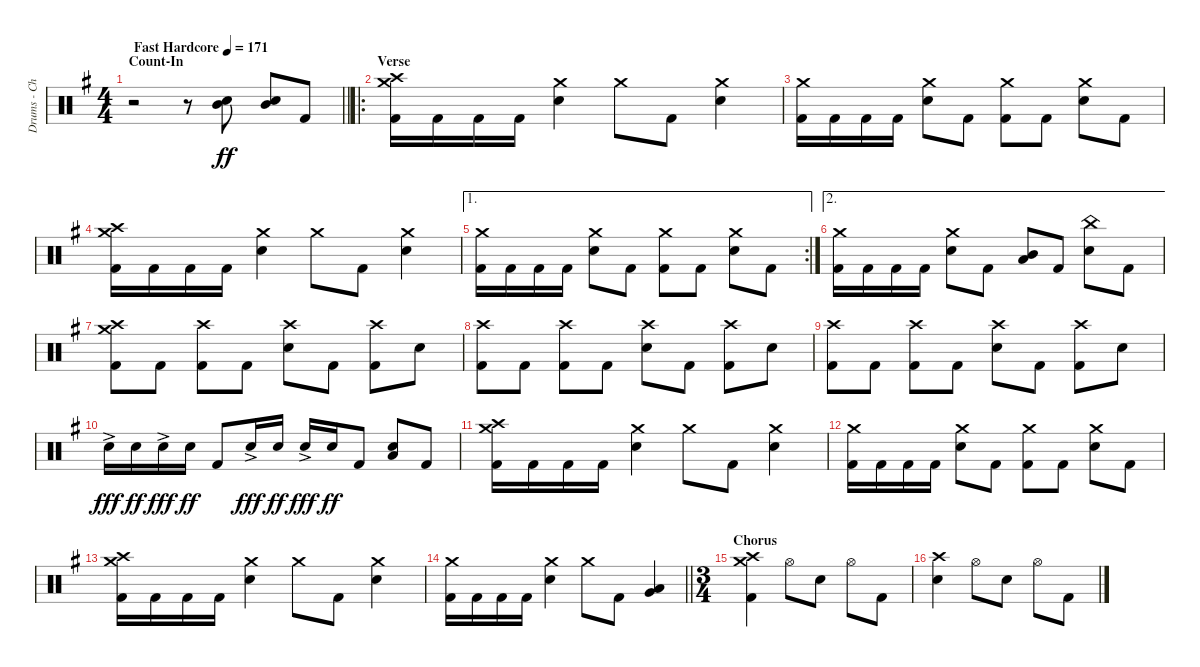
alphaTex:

\track ("Drums - Chris Hornbrook" "Drums - Ch") {instrument percussion}
\staff {score}
\articulation defaults
\ts (4 4)
\section ("" "Count-In")
\tempo (171 "Fast Hardcore")
\clef neutral
\barLineRight lightlight
\ks eminor
r.2{dy ff} r.8 ("Mid Tom (hit)" "Electric Snare (hit)").8{bu 60} ("Mid Tom (hit)" "Electric Snare (hit)").8{bu 60} "Kick (hit) 2".8 |
\ro
\section ("" "Verse")
("Crash medium (hit)" "Crash high (hit)" "Kick (hit) 2").16 "Kick (hit) 2".16 "Kick (hit) 2".16 "Kick (hit) 2".16 ("Crash medium (hit)" "Electric Snare (hit)").4 "Crash medium (hit)".8 "Kick (hit) 2".8 ("Crash medium (hit)" "Electric Snare (hit)").4 |
("Crash medium (hit)" "Kick (hit) 2").16 "Kick (hit) 2".16 "Kick (hit) 2".16 "Kick (hit) 2".16 ("Crash medium (hit)" "Electric Snare (hit)").8 "Kick (hit) 2".8 ("Crash medium (hit)" "Kick (hit) 2").8 "Kick (hit) 2".8 ("Crash medium (hit)" "Electric Snare (hit)").8 "Kick (hit) 2".8 |
("Crash medium (hit)" "Crash high (hit)" "Kick (hit) 2").16 "Kick (hit) 2".16 "Kick (hit) 2".16 "Kick (hit) 2".16 ("Crash medium (hit)" "Electric Snare (hit)").4 "Crash medium (hit)".8 "Kick (hit) 2".8 ("Crash medium (hit)" "Electric Snare (hit)").4 |
\ae 1
\rc 2
("Crash medium (hit)" "Kick (hit) 2").16 "Kick (hit) 2".16 "Kick (hit) 2".16 "Kick (hit) 2".16 ("Crash medium (hit)" "Electric Snare (hit)").8 "Kick (hit) 2".8 ("Crash medium (hit)" "Kick (hit) 2").8 "Kick (hit) 2".8 ("Crash medium (hit)" "Electric Snare (hit)").8 "Kick (hit) 2".8 |
\ae 2
("Crash medium (hit)" "Kick (hit) 2").16 "Kick (hit) 2".16 "Kick (hit) 2".16 "Kick (hit) 2".16 ("Crash medium (hit)" "Electric Snare (hit)").8 "Kick (hit) 2".8 ("Mid Tom (hit)" "Low Tom (hit)").8{bu 60} "Kick (hit) 2".8 ("China (hit)" "Electric Snare (hit)").8 "Kick (hit) 2".8 |
("Crash medium (hit)" "Crash high (hit)" "Kick (hit) 2").8 "Kick (hit) 2".8 ("Crash high (hit)" "Kick (hit) 2").8 "Kick (hit) 2".8 ("Crash high (hit)" "Electric Snare (hit)").8 "Kick (hit) 2".8 ("Crash high (hit)" "Kick (hit) 2").8 "Electric Snare (hit)".8 |
("Crash high (hit)" "Kick (hit) 2").8 "Kick (hit) 2".8 ("Crash high (hit)" "Kick (hit) 2").8 "Kick (hit) 2".8 ("Crash high (hit)" "Electric Snare (hit)").8 "Kick (hit) 2".8 ("Crash high (hit)" "Kick (hit) 2").8 "Electric Snare (hit)".8 |
("Crash high (hit)" "Kick (hit) 2").8 "Kick (hit) 2".8 ("Crash high (hit)" "Kick (hit) 2").8 "Kick (hit) 2".8 ("Crash high (hit)" "Electric Snare (hit)").8 "Kick (hit) 2".8 ("Crash high (hit)" "Kick (hit) 2").8 "Electric Snare (hit)".8 |
"Electric Snare (hit)"{ac}.16{dy fff} "Electric Snare (hit)".16{dy ff} "Electric Snare (hit)"{ac}.16{dy fff} "Electric Snare (hit)".16{dy ff} "Kick (hit) 2".8 "Electric Snare (hit)"{ac}.16{dy fff} "Electric Snare (hit)".16{dy ff} "Electric Snare (hit)"{ac}.16{dy fff} "Electric Snare (hit)".16{dy ff} "Kick (hit) 2".8 ("Low Tom (hit)" "Electric Snare (hit)").8{bu 120} "Kick (hit) 2".8 |
("Crash medium (hit)" "Crash high (hit)" "Kick (hit) 2").16 "Kick (hit) 2".16 "Kick (hit) 2".16 "Kick (hit) 2".16 ("Crash medium (hit)" "Electric Snare (hit)").4 "Crash medium (hit)".8 "Kick (hit) 2".8 ("Crash medium (hit)" "Electric Snare (hit)").4 |
("Crash medium (hit)" "Kick (hit) 2").16 "Kick (hit) 2".16 "Kick (hit) 2".16 "Kick (hit) 2".16 ("Crash medium (hit)" "Electric Snare (hit)").8 "Kick (hit) 2".8 ("Crash medium (hit)" "Kick (hit) 2").8 "Kick (hit) 2".8 ("Crash medium (hit)" "Electric Snare (hit)").8 "Kick (hit) 2".8 |
("Crash medium (hit)" "Crash high (hit)" "Kick (hit) 2").16 "Kick (hit) 2".16 "Kick (hit) 2".16 "Kick (hit) 2".16 ("Crash medium (hit)" "Electric Snare (hit)").4 "Crash medium (hit)".8 "Kick (hit) 2".8 ("Crash medium (hit)" "Electric Snare (hit)").4 |
\barLineRight lightlight
("Crash medium (hit)" "Kick (hit) 2").16 "Kick (hit) 2".16 "Kick (hit) 2".16 "Kick (hit) 2".16 ("Crash medium (hit)" "Electric Snare (hit)").4 "Crash medium (hit)".8 "Kick (hit) 2".8 ("Very Low Tom (hit)" "Low Floor Tom (hit)").4 |
\ts (3 4)
\section ("" "Chorus")
("Crash medium (hit)" "Crash high (hit)" "Kick (hit) 2").4 "Hi-Hat (open)".8 "Electric Snare (hit)".8 "Hi-Hat (open)".8 "Kick (hit) 2".8 |
("Crash high (hit)" "Electric Snare (hit)").4 "Hi-Hat (open)".8 "Electric Snare (hit)".8 "Hi-Hat (open)".8 "Kick (hit) 2".8
